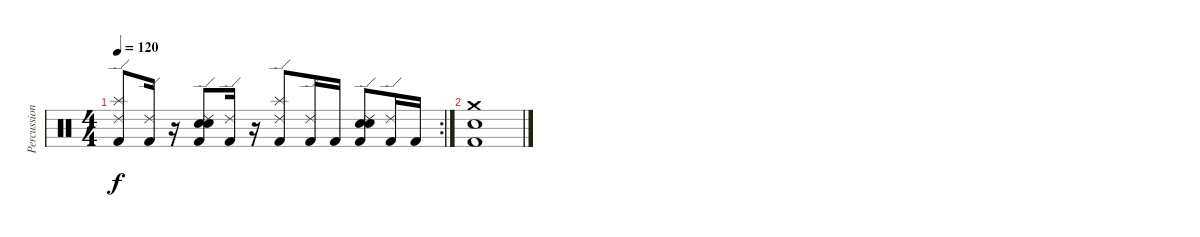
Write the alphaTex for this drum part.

\track ("Percussion" "Percussion") {instrument percussion}
\staff {score}
\articulation defaults
\rc 2
\ts (4 4)
\tempo 120
\clef neutral
\ks c
("Ride (edge) 2" "Splash (hit)" "Kick (hit) 2").8{dy f} ("Ride (edge) 2" "Kick (hit) 2").16 r.16 ("Ride (edge) 2" "Snare (hit) 2" "Electric Snare (hit)" "Kick (hit) 2").8 ("Ride (edge) 2" "Kick (hit) 2").16 r.16 ("Ride (edge) 2" "Splash (hit)" "Kick (hit) 2").8 ("Ride (edge) 2" "Kick (hit) 2").16 "Kick (hit) 2".16 ("Ride (edge) 2" "Snare (hit) 2" "Electric Snare (hit)" "Kick (hit) 2").8 ("Ride (edge) 2" "Kick (hit) 2").16 "Kick (hit) 2".16 |
("Kick (hit) 2" "Snare (hit) 2" "Crash medium (hit)").1
